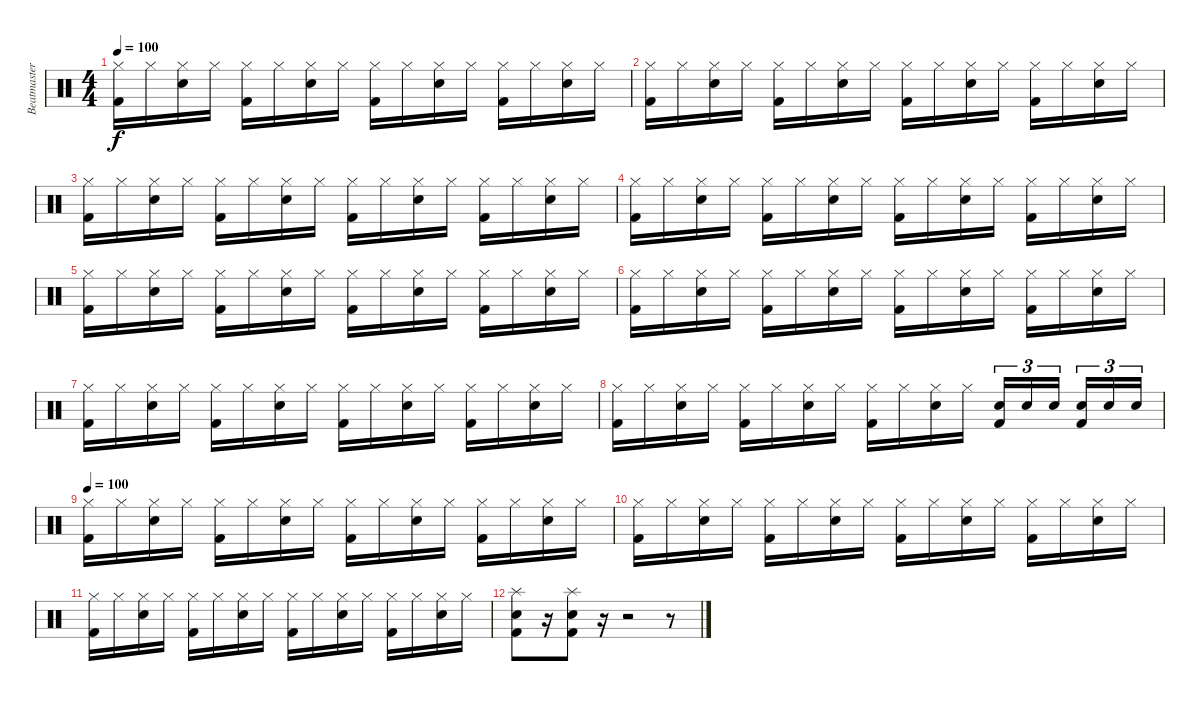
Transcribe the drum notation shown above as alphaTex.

\track ("Beatmaster V." "Beatmaster") {instrument percussion}
\staff {score}
\articulation defaults
\ts (4 4)
\tempo 100
\clef neutral
\ks c
("Hi-Hat (closed)" "Kick (hit) 2").16{dy f} "Hi-Hat (closed)".16 ("Hi-Hat (closed)" "Snare (hit) 2").16 "Hi-Hat (closed)".16 ("Hi-Hat (closed)" "Kick (hit) 2").16 "Hi-Hat (closed)".16 ("Hi-Hat (closed)" "Snare (hit) 2").16 "Hi-Hat (closed)".16 ("Hi-Hat (closed)" "Kick (hit) 2").16 "Hi-Hat (closed)".16 ("Hi-Hat (closed)" "Snare (hit) 2").16 "Hi-Hat (closed)".16 ("Hi-Hat (closed)" "Kick (hit) 2").16 "Hi-Hat (closed)".16 ("Hi-Hat (closed)" "Snare (hit) 2").16 "Hi-Hat (closed)".16 |
("Hi-Hat (closed)" "Kick (hit) 2").16 "Hi-Hat (closed)".16 ("Hi-Hat (closed)" "Snare (hit) 2").16 "Hi-Hat (closed)".16 ("Hi-Hat (closed)" "Kick (hit) 2").16 "Hi-Hat (closed)".16 ("Hi-Hat (closed)" "Snare (hit) 2").16 "Hi-Hat (closed)".16 ("Hi-Hat (closed)" "Kick (hit) 2").16 "Hi-Hat (closed)".16 ("Hi-Hat (closed)" "Snare (hit) 2").16 "Hi-Hat (closed)".16 ("Hi-Hat (closed)" "Kick (hit) 2").16 "Hi-Hat (closed)".16 ("Hi-Hat (closed)" "Snare (hit) 2").16 "Hi-Hat (closed)".16 |
("Hi-Hat (closed)" "Kick (hit) 2").16 "Hi-Hat (closed)".16 ("Hi-Hat (closed)" "Snare (hit) 2").16 "Hi-Hat (closed)".16 ("Hi-Hat (closed)" "Kick (hit) 2").16 "Hi-Hat (closed)".16 ("Hi-Hat (closed)" "Snare (hit) 2").16 "Hi-Hat (closed)".16 ("Hi-Hat (closed)" "Kick (hit) 2").16 "Hi-Hat (closed)".16 ("Hi-Hat (closed)" "Snare (hit) 2").16 "Hi-Hat (closed)".16 ("Hi-Hat (closed)" "Kick (hit) 2").16 "Hi-Hat (closed)".16 ("Hi-Hat (closed)" "Snare (hit) 2").16 "Hi-Hat (closed)".16 |
("Hi-Hat (closed)" "Kick (hit) 2").16 "Hi-Hat (closed)".16 ("Hi-Hat (closed)" "Snare (hit) 2").16 "Hi-Hat (closed)".16 ("Hi-Hat (closed)" "Kick (hit) 2").16 "Hi-Hat (closed)".16 ("Hi-Hat (closed)" "Snare (hit) 2").16 "Hi-Hat (closed)".16 ("Hi-Hat (closed)" "Kick (hit) 2").16 "Hi-Hat (closed)".16 ("Hi-Hat (closed)" "Snare (hit) 2").16 "Hi-Hat (closed)".16 ("Hi-Hat (closed)" "Kick (hit) 2").16 "Hi-Hat (closed)".16 ("Hi-Hat (closed)" "Snare (hit) 2").16 "Hi-Hat (closed)".16 |
("Hi-Hat (closed)" "Kick (hit) 2").16 "Hi-Hat (closed)".16 ("Hi-Hat (closed)" "Snare (hit) 2").16 "Hi-Hat (closed)".16 ("Hi-Hat (closed)" "Kick (hit) 2").16 "Hi-Hat (closed)".16 ("Hi-Hat (closed)" "Snare (hit) 2").16 "Hi-Hat (closed)".16 ("Hi-Hat (closed)" "Kick (hit) 2").16 "Hi-Hat (closed)".16 ("Hi-Hat (closed)" "Snare (hit) 2").16 "Hi-Hat (closed)".16 ("Hi-Hat (closed)" "Kick (hit) 2").16 "Hi-Hat (closed)".16 ("Hi-Hat (closed)" "Snare (hit) 2").16 "Hi-Hat (closed)".16 |
("Hi-Hat (closed)" "Kick (hit) 2").16 "Hi-Hat (closed)".16 ("Hi-Hat (closed)" "Snare (hit) 2").16 "Hi-Hat (closed)".16 ("Hi-Hat (closed)" "Kick (hit) 2").16 "Hi-Hat (closed)".16 ("Hi-Hat (closed)" "Snare (hit) 2").16 "Hi-Hat (closed)".16 ("Hi-Hat (closed)" "Kick (hit) 2").16 "Hi-Hat (closed)".16 ("Hi-Hat (closed)" "Snare (hit) 2").16 "Hi-Hat (closed)".16 ("Hi-Hat (closed)" "Kick (hit) 2").16 "Hi-Hat (closed)".16 ("Hi-Hat (closed)" "Snare (hit) 2").16 "Hi-Hat (closed)".16 |
("Hi-Hat (closed)" "Kick (hit) 2").16 "Hi-Hat (closed)".16 ("Hi-Hat (closed)" "Snare (hit) 2").16 "Hi-Hat (closed)".16 ("Hi-Hat (closed)" "Kick (hit) 2").16 "Hi-Hat (closed)".16 ("Hi-Hat (closed)" "Snare (hit) 2").16 "Hi-Hat (closed)".16 ("Hi-Hat (closed)" "Kick (hit) 2").16 "Hi-Hat (closed)".16 ("Hi-Hat (closed)" "Snare (hit) 2").16 "Hi-Hat (closed)".16 ("Hi-Hat (closed)" "Kick (hit) 2").16 "Hi-Hat (closed)".16 ("Hi-Hat (closed)" "Snare (hit) 2").16 "Hi-Hat (closed)".16 |
("Hi-Hat (closed)" "Kick (hit) 2").16 "Hi-Hat (closed)".16 ("Hi-Hat (closed)" "Snare (hit) 2").16 "Hi-Hat (closed)".16 ("Hi-Hat (closed)" "Kick (hit) 2").16 "Hi-Hat (closed)".16 ("Hi-Hat (closed)" "Snare (hit) 2").16 "Hi-Hat (closed)".16 ("Hi-Hat (closed)" "Kick (hit) 2").16 "Hi-Hat (closed)".16 ("Hi-Hat (closed)" "Snare (hit) 2").16 "Hi-Hat (closed)".16 ("Snare (hit) 2" "Kick (hit) 2").16{tu (3 2)} "Snare (hit) 2".16{tu (3 2)} "Snare (hit) 2".16{tu (3 2)} ("Snare (hit) 2" "Kick (hit) 2").16{tu (3 2)} "Snare (hit) 2".16{tu (3 2)} "Snare (hit) 2".16{tu (3 2)} |
\tempo 100
("Hi-Hat (closed)" "Kick (hit) 2").16 "Hi-Hat (closed)".16 ("Hi-Hat (closed)" "Snare (hit) 2").16 "Hi-Hat (closed)".16 ("Hi-Hat (closed)" "Kick (hit) 2").16 "Hi-Hat (closed)".16 ("Hi-Hat (closed)" "Snare (hit) 2").16 "Hi-Hat (closed)".16 ("Hi-Hat (closed)" "Kick (hit) 2").16 "Hi-Hat (closed)".16 ("Hi-Hat (closed)" "Snare (hit) 2").16 "Hi-Hat (closed)".16 ("Hi-Hat (closed)" "Kick (hit) 2").16 "Hi-Hat (closed)".16 ("Hi-Hat (closed)" "Snare (hit) 2").16 "Hi-Hat (closed)".16 |
("Hi-Hat (closed)" "Kick (hit) 2").16 "Hi-Hat (closed)".16 ("Hi-Hat (closed)" "Snare (hit) 2").16 "Hi-Hat (closed)".16 ("Hi-Hat (closed)" "Kick (hit) 2").16 "Hi-Hat (closed)".16 ("Hi-Hat (closed)" "Snare (hit) 2").16 "Hi-Hat (closed)".16 ("Hi-Hat (closed)" "Kick (hit) 2").16 "Hi-Hat (closed)".16 ("Hi-Hat (closed)" "Snare (hit) 2").16 "Hi-Hat (closed)".16 ("Hi-Hat (closed)" "Kick (hit) 2").16 "Hi-Hat (closed)".16 ("Hi-Hat (closed)" "Snare (hit) 2").16 "Hi-Hat (closed)".16 |
("Hi-Hat (closed)" "Kick (hit) 2").16 "Hi-Hat (closed)".16 ("Hi-Hat (closed)" "Snare (hit) 2").16 "Hi-Hat (closed)".16 ("Hi-Hat (closed)" "Kick (hit) 2").16 "Hi-Hat (closed)".16 ("Hi-Hat (closed)" "Snare (hit) 2").16 "Hi-Hat (closed)".16 ("Hi-Hat (closed)" "Kick (hit) 2").16 "Hi-Hat (closed)".16 ("Hi-Hat (closed)" "Snare (hit) 2").16 "Hi-Hat (closed)".16 ("Hi-Hat (closed)" "Kick (hit) 2").16 "Hi-Hat (closed)".16 ("Hi-Hat (closed)" "Snare (hit) 2").16 "Hi-Hat (closed)".16 |
("Splash (hit)" "Snare (hit) 2" "Kick (hit) 2").8 r.16 ("Splash (hit)" "Snare (hit) 2" "Kick (hit) 2").8 r.16 r.2 r.8
